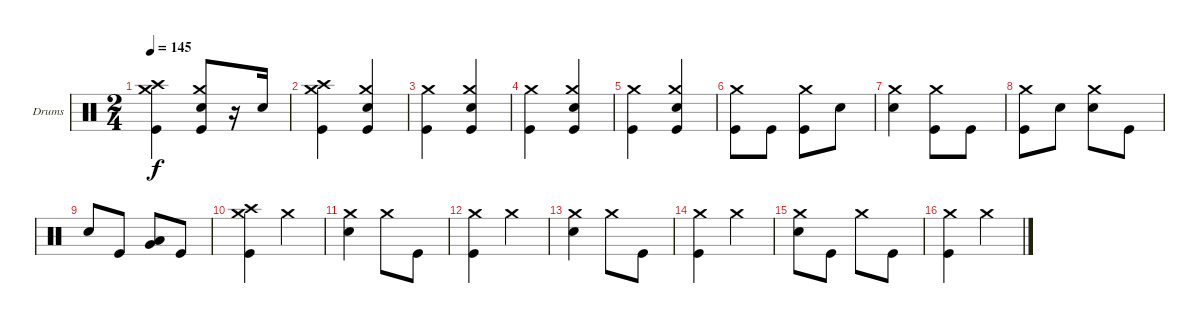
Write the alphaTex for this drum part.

\bracketExtendMode groupsimilarinstruments
\firstSystemTrackNameOrientation horizontal
\otherSystemsTrackNameOrientation horizontal
\track ("Drumkit" "Drums") {instrument percussion}
\staff {score}
\articulation defaults
\ts (2 4)
\tempo 145
\clef neutral
\ks c
("Kick (hit)" "Crash medium (hit)" "Crash high (hit)").4{dy f} ("Crash medium (hit)" "Kick (hit)" "Snare (hit) 2").8 r.16 "Snare (hit) 2".16 |
("Crash high (hit)" "Crash medium (hit)" "Kick (hit)").4 ("Kick (hit)" "Snare (hit) 2" "Crash medium (hit)").4 |
("Kick (hit)" "Crash medium (hit)").4 ("Crash medium (hit)" "Kick (hit)" "Snare (hit) 2").4 |
("Kick (hit)" "Crash medium (hit)").4 ("Crash medium (hit)" "Kick (hit)" "Snare (hit) 2").4 |
("Kick (hit)" "Crash medium (hit)").4 ("Crash medium (hit)" "Kick (hit)" "Snare (hit) 2").4 |
("Kick (hit)" "Crash medium (hit)").8 "Kick (hit)".8 ("Kick (hit)" "Crash medium (hit)").8 "Snare (hit) 2".8 |
("Snare (hit) 2" "Crash medium (hit)").4 ("Kick (hit)" "Crash medium (hit)").8 "Kick (hit)".8 |
("Kick (hit)" "Crash medium (hit)").8 "Snare (hit) 2".8 ("Snare (hit) 2" "Crash medium (hit)").8 "Kick (hit)".8 |
"Snare (hit) 2".8 "Kick (hit)".8 ("Very Low Tom (hit)" "Low Tom (hit)").8 "Kick (hit)".8 |
("Kick (hit)" "Crash medium (hit)" "Crash high (hit)").4 "Crash medium (hit)".4 |
("Snare (hit) 2" "Crash medium (hit)").4 "Crash medium (hit)".8 "Kick (hit)".8 |
("Crash medium (hit)" "Kick (hit)").4 "Crash medium (hit)".4 |
("Crash medium (hit)" "Snare (hit) 2").4 "Crash medium (hit)".8 "Kick (hit)".8 |
("Crash medium (hit)" "Kick (hit)").4 "Crash medium (hit)".4 |
("Crash medium (hit)" "Snare (hit) 2").8 "Kick (hit)".8 "Crash medium (hit)".8 "Kick (hit)".8 |
("Crash medium (hit)" "Kick (hit)").4 "Crash medium (hit)".4
